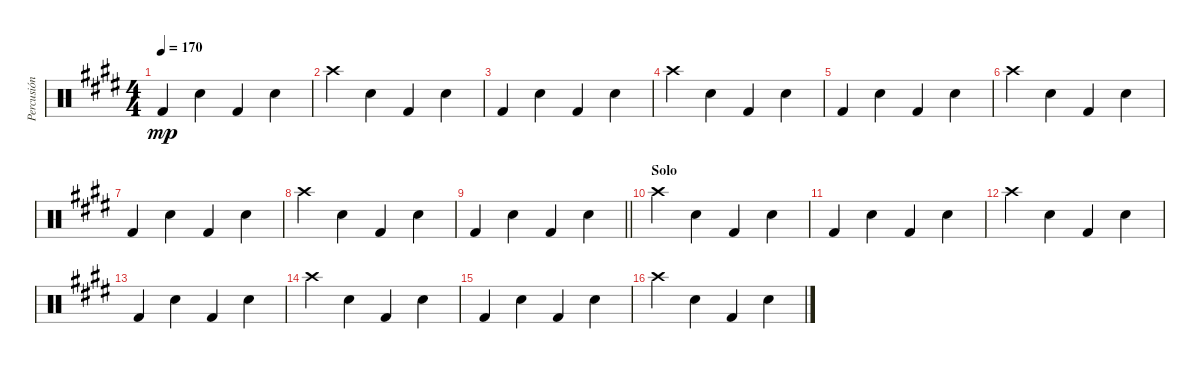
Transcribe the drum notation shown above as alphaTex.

\track ("Percusión" "Percusión") {instrument percussion}
\staff {score}
\articulation defaults
\ts (4 4)
\tempo 170
\clef neutral
\ks e "Kick (hit) 2".4{dy mp} "Snare (hit) 2".4 "Kick (hit) 2".4 "Snare (hit) 2".4
|
"Crash high (hit)".4 "Snare (hit) 2".4 "Kick (hit) 2".4 "Snare (hit) 2".4 |
"Kick (hit) 2".4 "Snare (hit) 2".4 "Kick (hit) 2".4 "Snare (hit) 2".4 |
"Crash high (hit)".4 "Snare (hit) 2".4 "Kick (hit) 2".4 "Snare (hit) 2".4 |
"Kick (hit) 2".4 "Snare (hit) 2".4 "Kick (hit) 2".4 "Snare (hit) 2".4 |
"Crash high (hit)".4 "Snare (hit) 2".4 "Kick (hit) 2".4 "Snare (hit) 2".4 |
"Kick (hit) 2".4 "Snare (hit) 2".4 "Kick (hit) 2".4 "Snare (hit) 2".4 |
"Crash high (hit)".4 "Snare (hit) 2".4 "Kick (hit) 2".4 "Snare (hit) 2".4 |
\barLineRight lightlight "Kick (hit) 2".4 "Snare (hit) 2".4 "Kick (hit) 2".4 "Snare (hit) 2".4
|
\section ("" "Solo")
"Crash high (hit)".4 "Snare (hit) 2".4 "Kick (hit) 2".4 "Snare (hit) 2".4 |
"Kick (hit) 2".4 "Snare (hit) 2".4 "Kick (hit) 2".4 "Snare (hit) 2".4 |
"Crash high (hit)".4 "Snare (hit) 2".4 "Kick (hit) 2".4 "Snare (hit) 2".4 |
"Kick (hit) 2".4 "Snare (hit) 2".4 "Kick (hit) 2".4 "Snare (hit) 2".4 |
"Crash high (hit)".4 "Snare (hit) 2".4 "Kick (hit) 2".4 "Snare (hit) 2".4 |
"Kick (hit) 2".4 "Snare (hit) 2".4 "Kick (hit) 2".4 "Snare (hit) 2".4 |
"Crash high (hit)".4 "Snare (hit) 2".4 "Kick (hit) 2".4 "Snare (hit) 2".4
